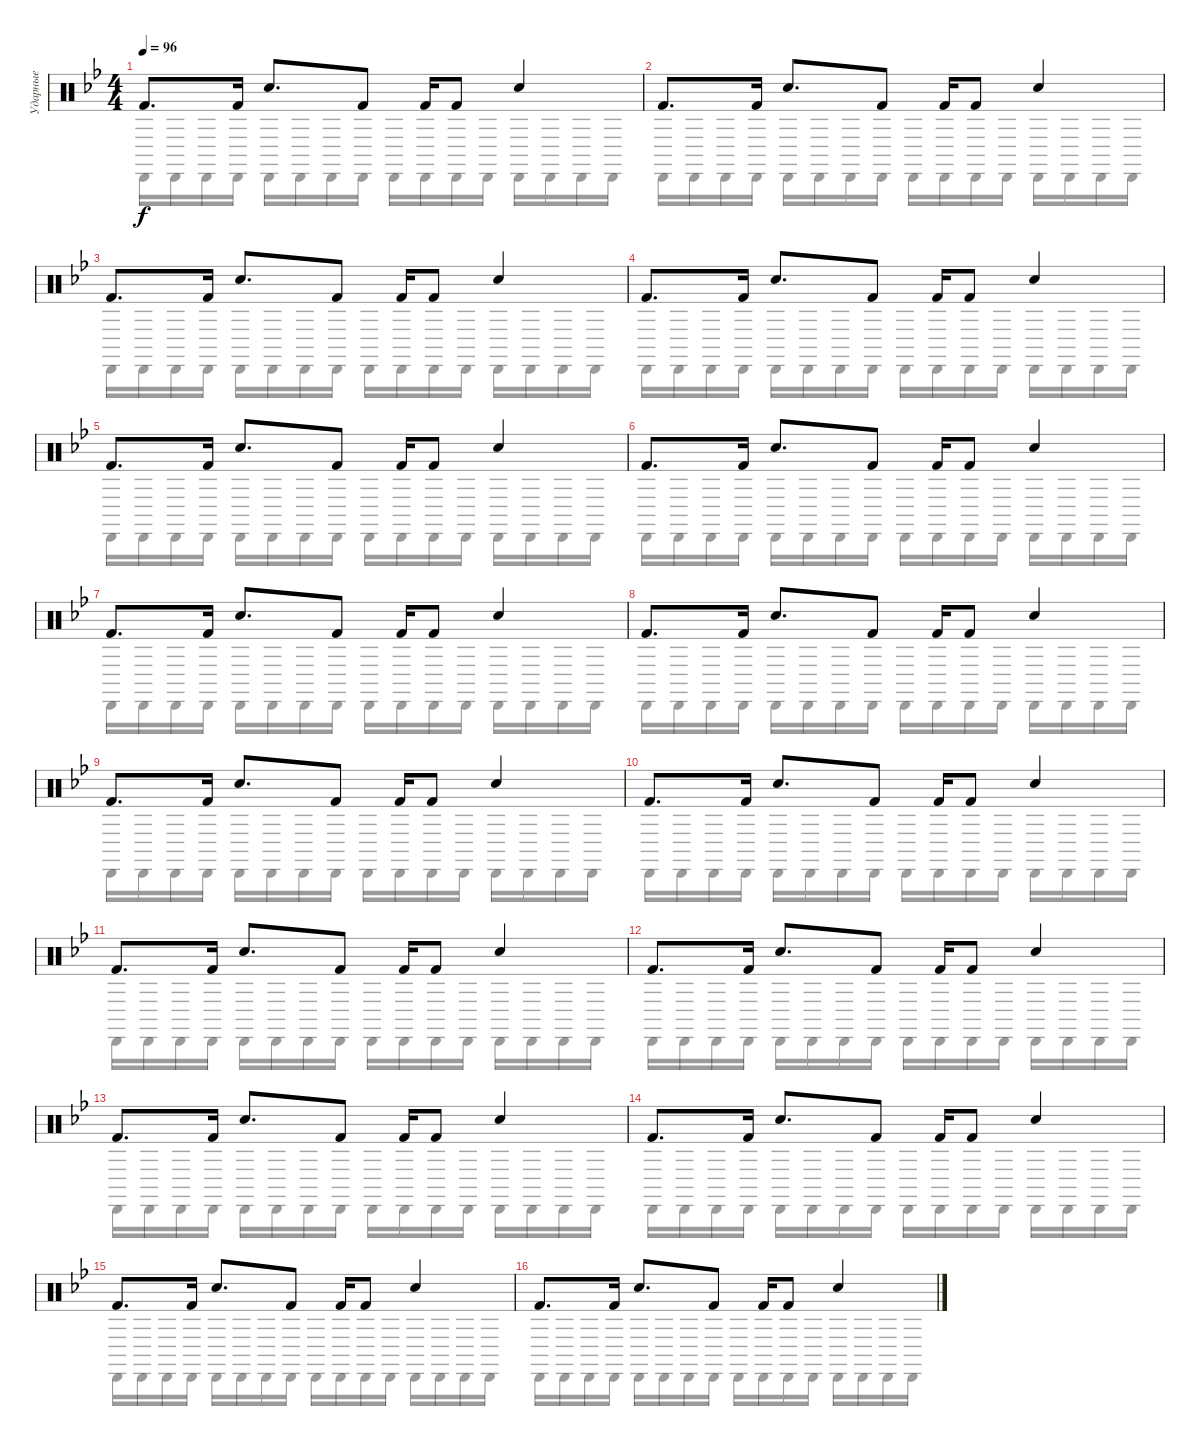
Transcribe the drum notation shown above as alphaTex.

\track ("Ударные" "Ударные") {instrument percussion}
\staff {score}
\articulation defaults
\voice
\ts (4 4)
\tempo 96
\clef neutral
\ks bb "Kick (hit) 2".8{d dy f} "Kick (hit) 2".16 "Hand Clap (hit)".8{d} "Kick (hit) 2".8 "Kick (hit) 2".16 "Kick (hit) 2".8 "Hand Clap (hit)".4
|
"Kick (hit) 2".8{d} "Kick (hit) 2".16 "Hand Clap (hit)".8{d} "Kick (hit) 2".8 "Kick (hit) 2".16 "Kick (hit) 2".8 "Hand Clap (hit)".4 |
"Kick (hit) 2".8{d} "Kick (hit) 2".16 "Hand Clap (hit)".8{d} "Kick (hit) 2".8 "Kick (hit) 2".16 "Kick (hit) 2".8 "Hand Clap (hit)".4 |
"Kick (hit) 2".8{d} "Kick (hit) 2".16 "Hand Clap (hit)".8{d} "Kick (hit) 2".8 "Kick (hit) 2".16 "Kick (hit) 2".8 "Hand Clap (hit)".4 |
"Kick (hit) 2".8{d} "Kick (hit) 2".16 "Hand Clap (hit)".8{d} "Kick (hit) 2".8 "Kick (hit) 2".16 "Kick (hit) 2".8 "Hand Clap (hit)".4 |
"Kick (hit) 2".8{d} "Kick (hit) 2".16 "Hand Clap (hit)".8{d} "Kick (hit) 2".8 "Kick (hit) 2".16 "Kick (hit) 2".8 "Hand Clap (hit)".4 |
"Kick (hit) 2".8{d} "Kick (hit) 2".16 "Hand Clap (hit)".8{d} "Kick (hit) 2".8 "Kick (hit) 2".16 "Kick (hit) 2".8 "Hand Clap (hit)".4 |
"Kick (hit) 2".8{d} "Kick (hit) 2".16 "Hand Clap (hit)".8{d} "Kick (hit) 2".8 "Kick (hit) 2".16 "Kick (hit) 2".8 "Hand Clap (hit)".4 |
"Kick (hit) 2".8{d} "Kick (hit) 2".16 "Hand Clap (hit)".8{d} "Kick (hit) 2".8 "Kick (hit) 2".16 "Kick (hit) 2".8 "Hand Clap (hit)".4 |
"Kick (hit) 2".8{d} "Kick (hit) 2".16 "Hand Clap (hit)".8{d} "Kick (hit) 2".8 "Kick (hit) 2".16 "Kick (hit) 2".8 "Hand Clap (hit)".4 |
"Kick (hit) 2".8{d} "Kick (hit) 2".16 "Hand Clap (hit)".8{d} "Kick (hit) 2".8 "Kick (hit) 2".16 "Kick (hit) 2".8 "Hand Clap (hit)".4 |
"Kick (hit) 2".8{d} "Kick (hit) 2".16 "Hand Clap (hit)".8{d} "Kick (hit) 2".8 "Kick (hit) 2".16 "Kick (hit) 2".8 "Hand Clap (hit)".4 |
"Kick (hit) 2".8{d} "Kick (hit) 2".16 "Hand Clap (hit)".8{d} "Kick (hit) 2".8 "Kick (hit) 2".16 "Kick (hit) 2".8 "Hand Clap (hit)".4 |
"Kick (hit) 2".8{d} "Kick (hit) 2".16 "Hand Clap (hit)".8{d} "Kick (hit) 2".8 "Kick (hit) 2".16 "Kick (hit) 2".8 "Hand Clap (hit)".4 |
"Kick (hit) 2".8{d} "Kick (hit) 2".16 "Hand Clap (hit)".8{d} "Kick (hit) 2".8 "Kick (hit) 2".16 "Kick (hit) 2".8 "Hand Clap (hit)".4 |
"Kick (hit) 2".8{d} "Kick (hit) 2".16 "Hand Clap (hit)".8{d} "Kick (hit) 2".8 "Kick (hit) 2".16 "Kick (hit) 2".8 "Hand Clap (hit)".4
\voice
\clef neutral
\ottava regular
\simile none
\ks bb "Cabasa (hit)".16{dy f} "Cabasa (hit)".16 "Cabasa (hit)".16 "Cabasa (hit)".16 "Cabasa (hit)".16 "Cabasa (hit)".16 "Cabasa (hit)".16 "Cabasa (hit)".16 "Cabasa (hit)".16 "Cabasa (hit)".16 "Cabasa (hit)".16 "Cabasa (hit)".16 "Cabasa (hit)".16 "Cabasa (hit)".16 "Cabasa (hit)".16 "Cabasa (hit)".16
|
"Cabasa (hit)".16 "Cabasa (hit)".16 "Cabasa (hit)".16 "Cabasa (hit)".16 "Cabasa (hit)".16 "Cabasa (hit)".16 "Cabasa (hit)".16 "Cabasa (hit)".16 "Cabasa (hit)".16 "Cabasa (hit)".16 "Cabasa (hit)".16 "Cabasa (hit)".16 "Cabasa (hit)".16 "Cabasa (hit)".16 "Cabasa (hit)".16 "Cabasa (hit)".16 |
"Cabasa (hit)".16 "Cabasa (hit)".16 "Cabasa (hit)".16 "Cabasa (hit)".16 "Cabasa (hit)".16 "Cabasa (hit)".16 "Cabasa (hit)".16 "Cabasa (hit)".16 "Cabasa (hit)".16 "Cabasa (hit)".16 "Cabasa (hit)".16 "Cabasa (hit)".16 "Cabasa (hit)".16 "Cabasa (hit)".16 "Cabasa (hit)".16 "Cabasa (hit)".16 |
"Cabasa (hit)".16 "Cabasa (hit)".16 "Cabasa (hit)".16 "Cabasa (hit)".16 "Cabasa (hit)".16 "Cabasa (hit)".16 "Cabasa (hit)".16 "Cabasa (hit)".16 "Cabasa (hit)".16 "Cabasa (hit)".16 "Cabasa (hit)".16 "Cabasa (hit)".16 "Cabasa (hit)".16 "Cabasa (hit)".16 "Cabasa (hit)".16 "Cabasa (hit)".16 |
"Cabasa (hit)".16 "Cabasa (hit)".16 "Cabasa (hit)".16 "Cabasa (hit)".16 "Cabasa (hit)".16 "Cabasa (hit)".16 "Cabasa (hit)".16 "Cabasa (hit)".16 "Cabasa (hit)".16 "Cabasa (hit)".16 "Cabasa (hit)".16 "Cabasa (hit)".16 "Cabasa (hit)".16 "Cabasa (hit)".16 "Cabasa (hit)".16 "Cabasa (hit)".16 |
"Cabasa (hit)".16 "Cabasa (hit)".16 "Cabasa (hit)".16 "Cabasa (hit)".16 "Cabasa (hit)".16 "Cabasa (hit)".16 "Cabasa (hit)".16 "Cabasa (hit)".16 "Cabasa (hit)".16 "Cabasa (hit)".16 "Cabasa (hit)".16 "Cabasa (hit)".16 "Cabasa (hit)".16 "Cabasa (hit)".16 "Cabasa (hit)".16 "Cabasa (hit)".16 |
"Cabasa (hit)".16 "Cabasa (hit)".16 "Cabasa (hit)".16 "Cabasa (hit)".16 "Cabasa (hit)".16 "Cabasa (hit)".16 "Cabasa (hit)".16 "Cabasa (hit)".16 "Cabasa (hit)".16 "Cabasa (hit)".16 "Cabasa (hit)".16 "Cabasa (hit)".16 "Cabasa (hit)".16 "Cabasa (hit)".16 "Cabasa (hit)".16 "Cabasa (hit)".16 |
"Cabasa (hit)".16 "Cabasa (hit)".16 "Cabasa (hit)".16 "Cabasa (hit)".16 "Cabasa (hit)".16 "Cabasa (hit)".16 "Cabasa (hit)".16 "Cabasa (hit)".16 "Cabasa (hit)".16 "Cabasa (hit)".16 "Cabasa (hit)".16 "Cabasa (hit)".16 "Cabasa (hit)".16 "Cabasa (hit)".16 "Cabasa (hit)".16 "Cabasa (hit)".16 |
"Cabasa (hit)".16 "Cabasa (hit)".16 "Cabasa (hit)".16 "Cabasa (hit)".16 "Cabasa (hit)".16 "Cabasa (hit)".16 "Cabasa (hit)".16 "Cabasa (hit)".16 "Cabasa (hit)".16 "Cabasa (hit)".16 "Cabasa (hit)".16 "Cabasa (hit)".16 "Cabasa (hit)".16 "Cabasa (hit)".16 "Cabasa (hit)".16 "Cabasa (hit)".16 |
"Cabasa (hit)".16 "Cabasa (hit)".16 "Cabasa (hit)".16 "Cabasa (hit)".16 "Cabasa (hit)".16 "Cabasa (hit)".16 "Cabasa (hit)".16 "Cabasa (hit)".16 "Cabasa (hit)".16 "Cabasa (hit)".16 "Cabasa (hit)".16 "Cabasa (hit)".16 "Cabasa (hit)".16 "Cabasa (hit)".16 "Cabasa (hit)".16 "Cabasa (hit)".16 |
"Cabasa (hit)".16 "Cabasa (hit)".16 "Cabasa (hit)".16 "Cabasa (hit)".16 "Cabasa (hit)".16 "Cabasa (hit)".16 "Cabasa (hit)".16 "Cabasa (hit)".16 "Cabasa (hit)".16 "Cabasa (hit)".16 "Cabasa (hit)".16 "Cabasa (hit)".16 "Cabasa (hit)".16 "Cabasa (hit)".16 "Cabasa (hit)".16 "Cabasa (hit)".16 |
"Cabasa (hit)".16 "Cabasa (hit)".16 "Cabasa (hit)".16 "Cabasa (hit)".16 "Cabasa (hit)".16 "Cabasa (hit)".16 "Cabasa (hit)".16 "Cabasa (hit)".16 "Cabasa (hit)".16 "Cabasa (hit)".16 "Cabasa (hit)".16 "Cabasa (hit)".16 "Cabasa (hit)".16 "Cabasa (hit)".16 "Cabasa (hit)".16 "Cabasa (hit)".16 |
"Cabasa (hit)".16 "Cabasa (hit)".16 "Cabasa (hit)".16 "Cabasa (hit)".16 "Cabasa (hit)".16 "Cabasa (hit)".16 "Cabasa (hit)".16 "Cabasa (hit)".16 "Cabasa (hit)".16 "Cabasa (hit)".16 "Cabasa (hit)".16 "Cabasa (hit)".16 "Cabasa (hit)".16 "Cabasa (hit)".16 "Cabasa (hit)".16 "Cabasa (hit)".16 |
"Cabasa (hit)".16 "Cabasa (hit)".16 "Cabasa (hit)".16 "Cabasa (hit)".16 "Cabasa (hit)".16 "Cabasa (hit)".16 "Cabasa (hit)".16 "Cabasa (hit)".16 "Cabasa (hit)".16 "Cabasa (hit)".16 "Cabasa (hit)".16 "Cabasa (hit)".16 "Cabasa (hit)".16 "Cabasa (hit)".16 "Cabasa (hit)".16 "Cabasa (hit)".16 |
"Cabasa (hit)".16 "Cabasa (hit)".16 "Cabasa (hit)".16 "Cabasa (hit)".16 "Cabasa (hit)".16 "Cabasa (hit)".16 "Cabasa (hit)".16 "Cabasa (hit)".16 "Cabasa (hit)".16 "Cabasa (hit)".16 "Cabasa (hit)".16 "Cabasa (hit)".16 "Cabasa (hit)".16 "Cabasa (hit)".16 "Cabasa (hit)".16 "Cabasa (hit)".16 |
"Cabasa (hit)".16 "Cabasa (hit)".16 "Cabasa (hit)".16 "Cabasa (hit)".16 "Cabasa (hit)".16 "Cabasa (hit)".16 "Cabasa (hit)".16 "Cabasa (hit)".16 "Cabasa (hit)".16 "Cabasa (hit)".16 "Cabasa (hit)".16 "Cabasa (hit)".16 "Cabasa (hit)".16 "Cabasa (hit)".16 "Cabasa (hit)".16 "Cabasa (hit)".16
